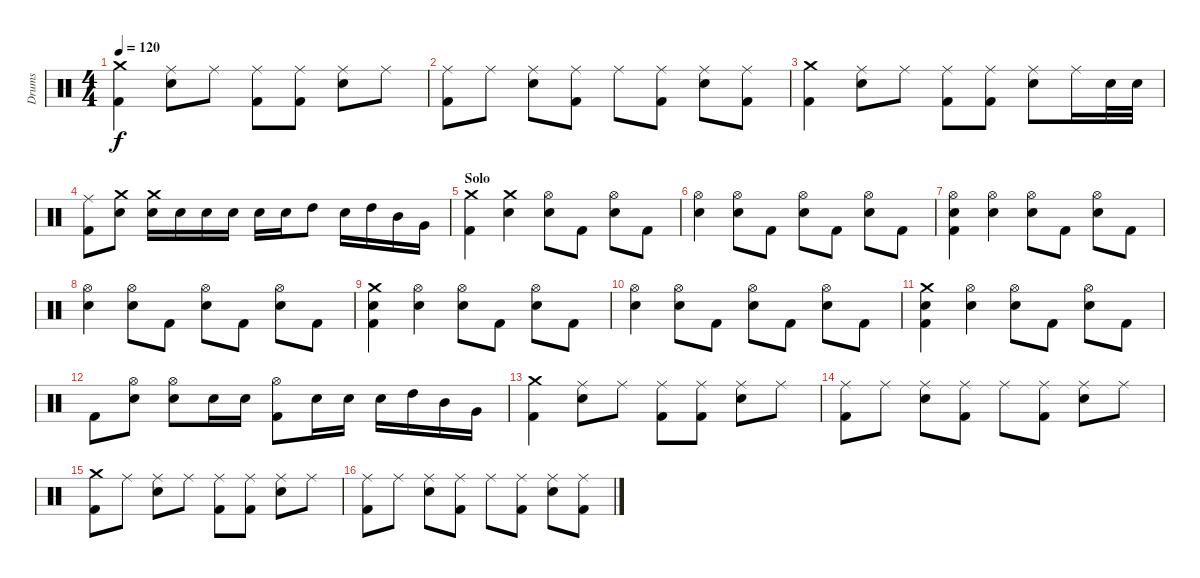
\track ("Drums" "Drums") {instrument percussion}
\staff {score}
\articulation defaults
\ts (4 4)
\tempo 120
\clef neutral
\ks c
("Crash medium (hit)" "Kick (hit) 2").4{dy f} ("Ride (middle)" "Snare (hit) 2").8 "Ride (middle)".8 ("Ride (middle)" "Kick (hit) 2").8 ("Ride (middle)" "Kick (hit) 2").8 ("Ride (middle)" "Snare (hit) 2").8 "Ride (middle)".8 |
("Ride (middle)" "Kick (hit) 2").8 "Ride (middle)".8 ("Ride (middle)" "Snare (hit) 2").8 ("Ride (middle)" "Kick (hit) 2").8 "Ride (middle)".8 ("Ride (middle)" "Kick (hit) 2").8 ("Ride (middle)" "Snare (hit) 2").8 ("Ride (middle)" "Kick (hit) 2").8 |
("Crash medium (hit)" "Kick (hit) 2").4 ("Ride (middle)" "Snare (hit) 2").8 "Ride (middle)".8 ("Ride (middle)" "Kick (hit) 2").8 ("Ride (middle)" "Kick (hit) 2").8 ("Ride (middle)" "Snare (hit) 2").8 "Ride (middle)".16 "Snare (hit) 2".32 "Snare (hit) 2".32 |
("Ride (middle)" "Kick (hit) 2").8 ("Crash medium (hit)" "Snare (hit) 2").8 ("Crash medium (hit)" "Snare (hit) 2").16 "Snare (hit) 2".16 "Snare (hit) 2".16 "Snare (hit) 2".16 "Snare (hit) 2".16 "Snare (hit) 2".16 "High Tom (hit)".8 "Snare (hit) 2".16 "High Tom (hit)".16 "Mid Tom (hit)".16 "Very Low Tom (hit)".16 |
\section ("" "Solo")
("Crash medium (hit)" "Kick (hit) 2").4 ("Crash medium (hit)" "Snare (hit) 2").4 ("Hi-Hat (open)" "Snare (hit) 2").8 "Kick (hit) 2".8 ("Hi-Hat (open)" "Snare (hit) 2").8 "Kick (hit) 2".8 |
("Hi-Hat (open)" "Snare (hit) 2").4 ("Hi-Hat (open)" "Snare (hit) 2").8 "Kick (hit) 2".8 ("Hi-Hat (open)" "Snare (hit) 2").8 "Kick (hit) 2".8 ("Hi-Hat (open)" "Snare (hit) 2").8 "Kick (hit) 2".8 |
("Hi-Hat (open)" "Snare (hit) 2" "Kick (hit) 2").4 ("Hi-Hat (open)" "Snare (hit) 2").4 ("Hi-Hat (open)" "Snare (hit) 2").8 "Kick (hit) 2".8 ("Hi-Hat (open)" "Snare (hit) 2").8 "Kick (hit) 2".8 |
("Hi-Hat (open)" "Snare (hit) 2").4 ("Hi-Hat (open)" "Snare (hit) 2").8 "Kick (hit) 2".8 ("Hi-Hat (open)" "Snare (hit) 2").8 "Kick (hit) 2".8 ("Hi-Hat (open)" "Snare (hit) 2").8 "Kick (hit) 2".8 |
("Crash medium (hit)" "Snare (hit) 2" "Kick (hit) 2").4 ("Hi-Hat (open)" "Snare (hit) 2").4 ("Hi-Hat (open)" "Snare (hit) 2").8 "Kick (hit) 2".8 ("Hi-Hat (open)" "Snare (hit) 2").8 "Kick (hit) 2".8 |
("Hi-Hat (open)" "Snare (hit) 2").4 ("Hi-Hat (open)" "Snare (hit) 2").8 "Kick (hit) 2".8 ("Hi-Hat (open)" "Snare (hit) 2").8 "Kick (hit) 2".8 ("Hi-Hat (open)" "Snare (hit) 2").8 "Kick (hit) 2".8 |
("Crash medium (hit)" "Snare (hit) 2" "Kick (hit) 2").4 ("Hi-Hat (open)" "Snare (hit) 2").4 ("Hi-Hat (open)" "Snare (hit) 2").8 "Kick (hit) 2".8 ("Hi-Hat (open)" "Snare (hit) 2").8 "Kick (hit) 2".8 |
"Kick (hit) 2".8 ("Hi-Hat (open)" "Snare (hit) 2").8 ("Hi-Hat (open)" "Snare (hit) 2").8 "Snare (hit) 2".16 "Snare (hit) 2".16 ("Hi-Hat (open)" "Kick (hit) 2").8 "Snare (hit) 2".16 "Snare (hit) 2".16 "Snare (hit) 2".16 "High Tom (hit)".16 "Mid Tom (hit)".16 "Very Low Tom (hit)".16 |
("Crash medium (hit)" "Kick (hit) 2").4 ("Ride (middle)" "Snare (hit) 2").8 "Ride (middle)".8 ("Ride (middle)" "Kick (hit) 2").8 ("Ride (middle)" "Kick (hit) 2").8 ("Ride (middle)" "Snare (hit) 2").8 "Ride (middle)".8 |
("Ride (middle)" "Kick (hit) 2").8 "Ride (middle)".8 ("Ride (middle)" "Snare (hit) 2").8 ("Ride (middle)" "Kick (hit) 2").8 "Ride (middle)".8 ("Ride (middle)" "Kick (hit) 2").8 ("Ride (middle)" "Snare (hit) 2").8 "Ride (middle)".8 |
("Crash medium (hit)" "Kick (hit) 2").8 "Ride (middle)".8 ("Ride (middle)" "Snare (hit) 2").8 "Ride (middle)".8 ("Ride (middle)" "Kick (hit) 2").8 ("Ride (middle)" "Kick (hit) 2").8 ("Ride (middle)" "Snare (hit) 2").8 "Ride (middle)".8 |
("Ride (middle)" "Kick (hit) 2").8 "Ride (middle)".8 ("Ride (middle)" "Snare (hit) 2").8 ("Ride (middle)" "Kick (hit) 2").8 "Ride (middle)".8 ("Ride (middle)" "Kick (hit) 2").8 ("Ride (middle)" "Snare (hit) 2").8 ("Ride (middle)" "Kick (hit) 2").8
